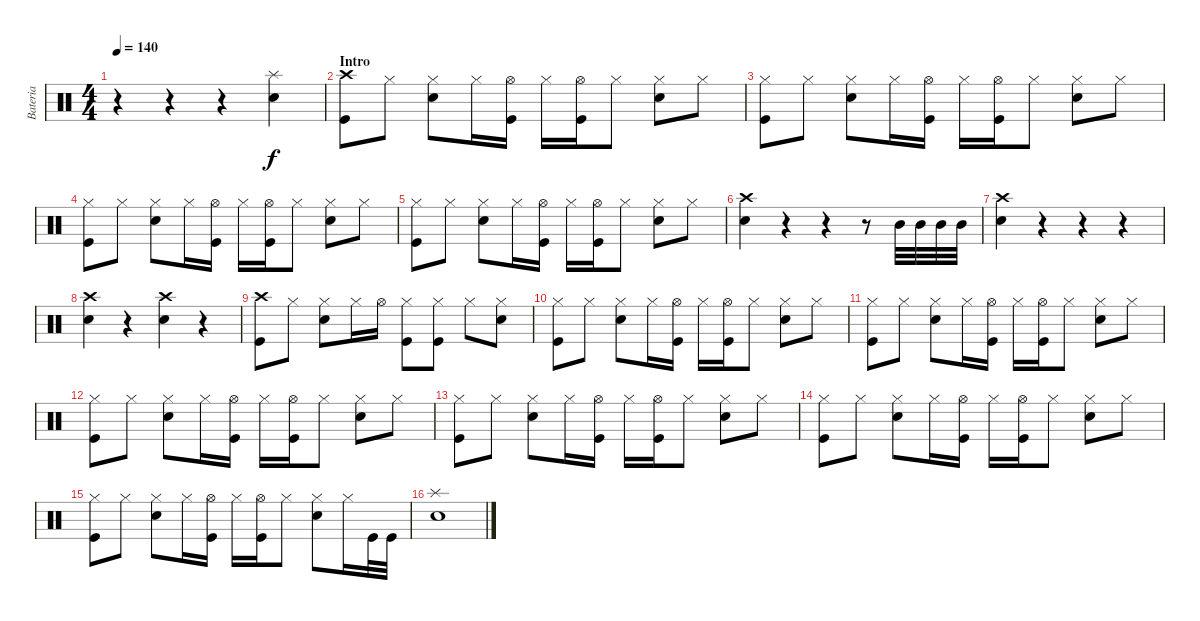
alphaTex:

\track ("Bateria" "Bateria") {instrument percussion}
\staff {score}
\articulation defaults
\ts (4 4)
\tempo 140
\clef neutral
\ks c
r.4{dy f} r.4 r.4 ("Splash (hit)" "Electric Snare (hit)").4 |
\section ("" "Intro")
("Crash high (hit)" "Kick (hit)").8 "Hi-Hat (closed)".8 ("Hi-Hat (closed)" "Electric Snare (hit)").8 "Hi-Hat (closed)".16 ("Hi-Hat (open)" "Kick (hit)").16 "Hi-Hat (closed)".16 ("Hi-Hat (open)" "Kick (hit)").16 "Hi-Hat (closed)".8 ("Hi-Hat (closed)" "Electric Snare (hit)").8 "Hi-Hat (closed)".8 |
("Hi-Hat (closed)" "Kick (hit)").8 "Hi-Hat (closed)".8 ("Hi-Hat (closed)" "Electric Snare (hit)").8 "Hi-Hat (closed)".16 ("Hi-Hat (open)" "Kick (hit)").16 "Hi-Hat (closed)".16 ("Hi-Hat (open)" "Kick (hit)").16 "Hi-Hat (closed)".8 ("Hi-Hat (closed)" "Electric Snare (hit)").8 "Hi-Hat (closed)".8 |
("Hi-Hat (closed)" "Kick (hit)").8 "Hi-Hat (closed)".8 ("Hi-Hat (closed)" "Electric Snare (hit)").8 "Hi-Hat (closed)".16 ("Hi-Hat (open)" "Kick (hit)").16 "Hi-Hat (closed)".16 ("Hi-Hat (open)" "Kick (hit)").16 "Hi-Hat (closed)".8 ("Hi-Hat (closed)" "Electric Snare (hit)").8 "Hi-Hat (closed)".8 |
("Hi-Hat (closed)" "Kick (hit)").8 "Hi-Hat (closed)".8 ("Hi-Hat (closed)" "Electric Snare (hit)").8 "Hi-Hat (closed)".16 ("Hi-Hat (open)" "Kick (hit)").16 "Hi-Hat (closed)".16 ("Hi-Hat (open)" "Kick (hit)").16 "Hi-Hat (closed)".8 ("Hi-Hat (closed)" "Electric Snare (hit)").8 "Hi-Hat (closed)".8 |
("Crash high (hit)" "Electric Snare (hit)").4 r.4 r.4 r.8 "Mid Tom (hit)".32 "Mid Tom (hit)".32 "Mid Tom (hit)".32 "Mid Tom (hit)".32 |
("Crash high (hit)" "Electric Snare (hit)").4 r.4 r.4 r.4 |
("Crash high (hit)" "Electric Snare (hit)").4 r.4 ("Crash high (hit)" "Electric Snare (hit)").4 r.4 |
("Crash high (hit)" "Kick (hit)").8 "Hi-Hat (closed)".8 ("Hi-Hat (closed)" "Electric Snare (hit)").8 "Hi-Hat (closed)".16 "Hi-Hat (open)".16 ("Hi-Hat (closed)" "Kick (hit)").8 ("Hi-Hat (closed)" "Kick (hit)").8 "Hi-Hat (closed)".8 ("Hi-Hat (closed)" "Electric Snare (hit)").8 |
("Hi-Hat (closed)" "Kick (hit)").8 "Hi-Hat (closed)".8 ("Hi-Hat (closed)" "Electric Snare (hit)").8 "Hi-Hat (closed)".16 ("Hi-Hat (open)" "Kick (hit)").16 "Hi-Hat (closed)".16 ("Hi-Hat (open)" "Kick (hit)").16 "Hi-Hat (closed)".8 ("Hi-Hat (closed)" "Electric Snare (hit)").8 "Hi-Hat (closed)".8 |
("Hi-Hat (closed)" "Kick (hit)").8 "Hi-Hat (closed)".8 ("Hi-Hat (closed)" "Electric Snare (hit)").8 "Hi-Hat (closed)".16 ("Hi-Hat (open)" "Kick (hit)").16 "Hi-Hat (closed)".16 ("Hi-Hat (open)" "Kick (hit)").16 "Hi-Hat (closed)".8 ("Hi-Hat (closed)" "Electric Snare (hit)").8 "Hi-Hat (closed)".8 |
("Hi-Hat (closed)" "Kick (hit)").8 "Hi-Hat (closed)".8 ("Hi-Hat (closed)" "Electric Snare (hit)").8 "Hi-Hat (closed)".16 ("Hi-Hat (open)" "Kick (hit)").16 "Hi-Hat (closed)".16 ("Hi-Hat (open)" "Kick (hit)").16 "Hi-Hat (closed)".8 ("Hi-Hat (closed)" "Electric Snare (hit)").8 "Hi-Hat (closed)".8 |
("Hi-Hat (closed)" "Kick (hit)").8 "Hi-Hat (closed)".8 ("Hi-Hat (closed)" "Electric Snare (hit)").8 "Hi-Hat (closed)".16 ("Hi-Hat (open)" "Kick (hit)").16 "Hi-Hat (closed)".16 ("Hi-Hat (open)" "Kick (hit)").16 "Hi-Hat (closed)".8 ("Hi-Hat (closed)" "Electric Snare (hit)").8 "Hi-Hat (closed)".8 |
("Hi-Hat (closed)" "Kick (hit)").8 "Hi-Hat (closed)".8 ("Hi-Hat (closed)" "Electric Snare (hit)").8 "Hi-Hat (closed)".16 ("Hi-Hat (open)" "Kick (hit)").16 "Hi-Hat (closed)".16 ("Hi-Hat (open)" "Kick (hit)").16 "Hi-Hat (closed)".8 ("Hi-Hat (closed)" "Electric Snare (hit)").8 "Hi-Hat (closed)".8 |
("Hi-Hat (closed)" "Kick (hit)").8 "Hi-Hat (closed)".8 ("Hi-Hat (closed)" "Electric Snare (hit)").8 "Hi-Hat (closed)".16 ("Hi-Hat (open)" "Kick (hit)").16 "Hi-Hat (closed)".16 ("Hi-Hat (open)" "Kick (hit)").16 "Hi-Hat (closed)".8 ("Hi-Hat (closed)" "Electric Snare (hit)").8 "Hi-Hat (closed)".16 "Kick (hit)".32 "Kick (hit)".32 |
("Splash (hit)" "Electric Snare (hit)").1
